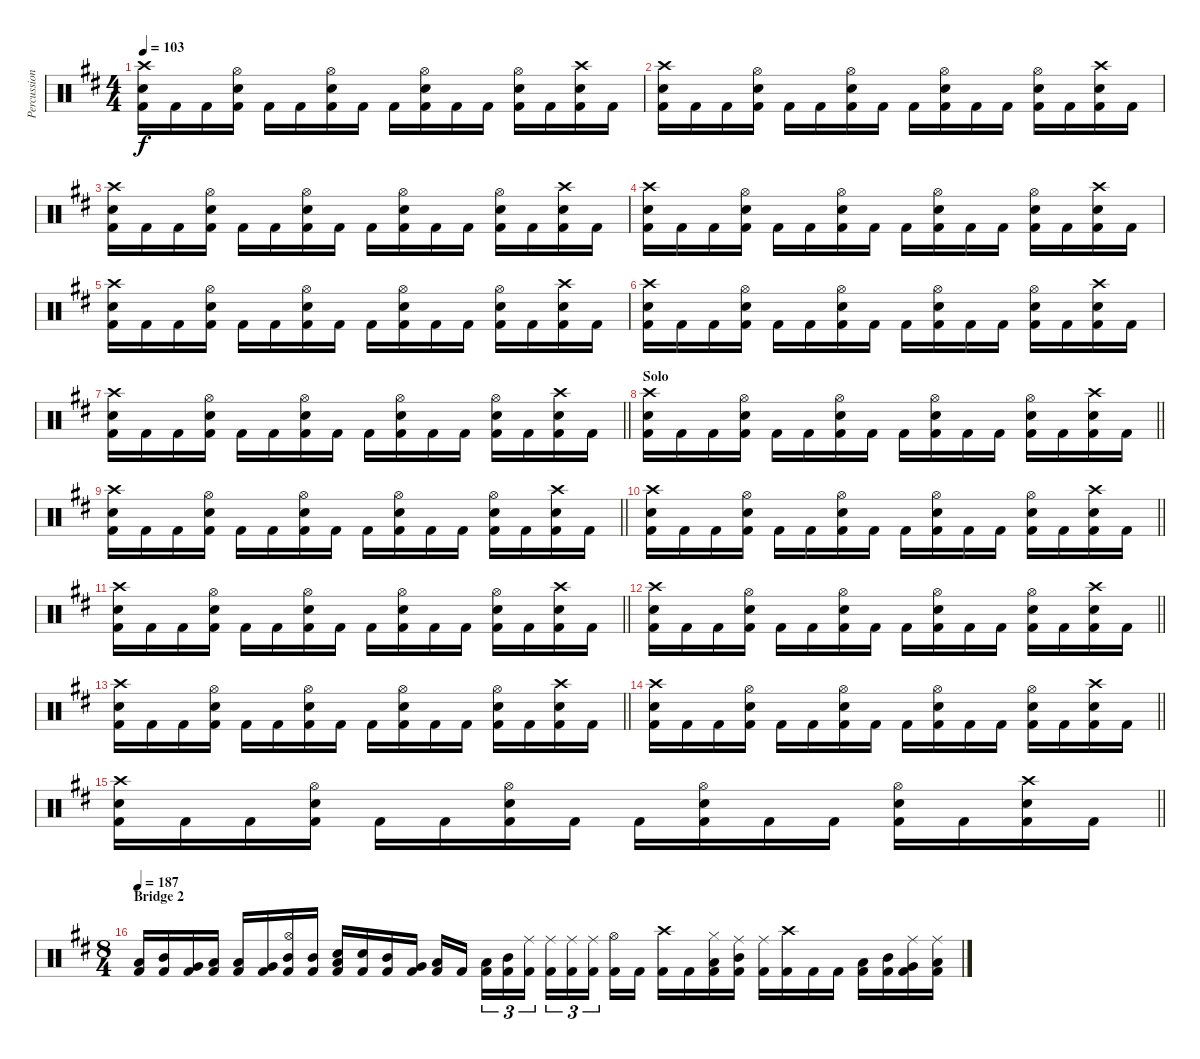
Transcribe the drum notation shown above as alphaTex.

\track ("Percussion" "Percussion") {instrument percussion}
\staff {score}
\articulation defaults
\ts (4 4)
\tempo 103
\clef neutral
\ks d
("Crash high (hit)" "Electric Snare (hit)" "Kick (hit) 2").16{dy f} "Kick (hit) 2".16 "Kick (hit) 2".16 ("Hi-Hat (open)" "Electric Snare (hit)" "Kick (hit) 2").16 "Kick (hit) 2".16 "Kick (hit) 2".16 ("Hi-Hat (open)" "Electric Snare (hit)" "Kick (hit) 2").16 "Kick (hit) 2".16 "Kick (hit) 2".16 ("Hi-Hat (open)" "Electric Snare (hit)" "Kick (hit) 2").16 "Kick (hit) 2".16 "Kick (hit) 2".16 ("Hi-Hat (open)" "Electric Snare (hit)" "Kick (hit) 2").16 "Kick (hit) 2".16 ("Crash high (hit)" "Electric Snare (hit)" "Kick (hit) 2").16 "Kick (hit) 2".16 |
("Crash high (hit)" "Electric Snare (hit)" "Kick (hit) 2").16 "Kick (hit) 2".16 "Kick (hit) 2".16 ("Hi-Hat (open)" "Electric Snare (hit)" "Kick (hit) 2").16 "Kick (hit) 2".16 "Kick (hit) 2".16 ("Hi-Hat (open)" "Electric Snare (hit)" "Kick (hit) 2").16 "Kick (hit) 2".16 "Kick (hit) 2".16 ("Hi-Hat (open)" "Electric Snare (hit)" "Kick (hit) 2").16 "Kick (hit) 2".16 "Kick (hit) 2".16 ("Hi-Hat (open)" "Electric Snare (hit)" "Kick (hit) 2").16 "Kick (hit) 2".16 ("Crash high (hit)" "Electric Snare (hit)" "Kick (hit) 2").16 "Kick (hit) 2".16 |
("Crash high (hit)" "Electric Snare (hit)" "Kick (hit) 2").16 "Kick (hit) 2".16 "Kick (hit) 2".16 ("Hi-Hat (open)" "Electric Snare (hit)" "Kick (hit) 2").16 "Kick (hit) 2".16 "Kick (hit) 2".16 ("Hi-Hat (open)" "Electric Snare (hit)" "Kick (hit) 2").16 "Kick (hit) 2".16 "Kick (hit) 2".16 ("Hi-Hat (open)" "Electric Snare (hit)" "Kick (hit) 2").16 "Kick (hit) 2".16 "Kick (hit) 2".16 ("Hi-Hat (open)" "Electric Snare (hit)" "Kick (hit) 2").16 "Kick (hit) 2".16 ("Crash high (hit)" "Electric Snare (hit)" "Kick (hit) 2").16 "Kick (hit) 2".16 |
("Crash high (hit)" "Electric Snare (hit)" "Kick (hit) 2").16 "Kick (hit) 2".16 "Kick (hit) 2".16 ("Hi-Hat (open)" "Electric Snare (hit)" "Kick (hit) 2").16 "Kick (hit) 2".16 "Kick (hit) 2".16 ("Hi-Hat (open)" "Electric Snare (hit)" "Kick (hit) 2").16 "Kick (hit) 2".16 "Kick (hit) 2".16 ("Hi-Hat (open)" "Electric Snare (hit)" "Kick (hit) 2").16 "Kick (hit) 2".16 "Kick (hit) 2".16 ("Hi-Hat (open)" "Electric Snare (hit)" "Kick (hit) 2").16 "Kick (hit) 2".16 ("Crash high (hit)" "Electric Snare (hit)" "Kick (hit) 2").16 "Kick (hit) 2".16 |
("Crash high (hit)" "Electric Snare (hit)" "Kick (hit) 2").16 "Kick (hit) 2".16 "Kick (hit) 2".16 ("Hi-Hat (open)" "Electric Snare (hit)" "Kick (hit) 2").16 "Kick (hit) 2".16 "Kick (hit) 2".16 ("Hi-Hat (open)" "Electric Snare (hit)" "Kick (hit) 2").16 "Kick (hit) 2".16 "Kick (hit) 2".16 ("Hi-Hat (open)" "Electric Snare (hit)" "Kick (hit) 2").16 "Kick (hit) 2".16 "Kick (hit) 2".16 ("Hi-Hat (open)" "Electric Snare (hit)" "Kick (hit) 2").16 "Kick (hit) 2".16 ("Crash high (hit)" "Electric Snare (hit)" "Kick (hit) 2").16 "Kick (hit) 2".16 |
("Crash high (hit)" "Electric Snare (hit)" "Kick (hit) 2").16 "Kick (hit) 2".16 "Kick (hit) 2".16 ("Hi-Hat (open)" "Electric Snare (hit)" "Kick (hit) 2").16 "Kick (hit) 2".16 "Kick (hit) 2".16 ("Hi-Hat (open)" "Electric Snare (hit)" "Kick (hit) 2").16 "Kick (hit) 2".16 "Kick (hit) 2".16 ("Hi-Hat (open)" "Electric Snare (hit)" "Kick (hit) 2").16 "Kick (hit) 2".16 "Kick (hit) 2".16 ("Hi-Hat (open)" "Electric Snare (hit)" "Kick (hit) 2").16 "Kick (hit) 2".16 ("Crash high (hit)" "Electric Snare (hit)" "Kick (hit) 2").16 "Kick (hit) 2".16 |
\barLineRight lightlight
("Crash high (hit)" "Electric Snare (hit)" "Kick (hit) 2").16 "Kick (hit) 2".16 "Kick (hit) 2".16 ("Hi-Hat (open)" "Electric Snare (hit)" "Kick (hit) 2").16 "Kick (hit) 2".16 "Kick (hit) 2".16 ("Hi-Hat (open)" "Electric Snare (hit)" "Kick (hit) 2").16 "Kick (hit) 2".16 "Kick (hit) 2".16 ("Hi-Hat (open)" "Electric Snare (hit)" "Kick (hit) 2").16 "Kick (hit) 2".16 "Kick (hit) 2".16 ("Hi-Hat (open)" "Electric Snare (hit)" "Kick (hit) 2").16 "Kick (hit) 2".16 ("Crash high (hit)" "Electric Snare (hit)" "Kick (hit) 2").16 "Kick (hit) 2".16 |
\section ("" "Solo")
\barLineRight lightlight
("Crash high (hit)" "Electric Snare (hit)" "Kick (hit) 2").16 "Kick (hit) 2".16 "Kick (hit) 2".16 ("Hi-Hat (open)" "Electric Snare (hit)" "Kick (hit) 2").16 "Kick (hit) 2".16 "Kick (hit) 2".16 ("Hi-Hat (open)" "Electric Snare (hit)" "Kick (hit) 2").16 "Kick (hit) 2".16 "Kick (hit) 2".16 ("Hi-Hat (open)" "Electric Snare (hit)" "Kick (hit) 2").16 "Kick (hit) 2".16 "Kick (hit) 2".16 ("Hi-Hat (open)" "Electric Snare (hit)" "Kick (hit) 2").16 "Kick (hit) 2".16 ("Crash high (hit)" "Electric Snare (hit)" "Kick (hit) 2").16 "Kick (hit) 2".16 |
\barLineRight lightlight
("Crash high (hit)" "Electric Snare (hit)" "Kick (hit) 2").16 "Kick (hit) 2".16 "Kick (hit) 2".16 ("Hi-Hat (open)" "Electric Snare (hit)" "Kick (hit) 2").16 "Kick (hit) 2".16 "Kick (hit) 2".16 ("Hi-Hat (open)" "Electric Snare (hit)" "Kick (hit) 2").16 "Kick (hit) 2".16 "Kick (hit) 2".16 ("Hi-Hat (open)" "Electric Snare (hit)" "Kick (hit) 2").16 "Kick (hit) 2".16 "Kick (hit) 2".16 ("Hi-Hat (open)" "Electric Snare (hit)" "Kick (hit) 2").16 "Kick (hit) 2".16 ("Crash high (hit)" "Electric Snare (hit)" "Kick (hit) 2").16 "Kick (hit) 2".16 |
\barLineRight lightlight
("Crash high (hit)" "Electric Snare (hit)" "Kick (hit) 2").16 "Kick (hit) 2".16 "Kick (hit) 2".16 ("Hi-Hat (open)" "Electric Snare (hit)" "Kick (hit) 2").16 "Kick (hit) 2".16 "Kick (hit) 2".16 ("Hi-Hat (open)" "Electric Snare (hit)" "Kick (hit) 2").16 "Kick (hit) 2".16 "Kick (hit) 2".16 ("Hi-Hat (open)" "Electric Snare (hit)" "Kick (hit) 2").16 "Kick (hit) 2".16 "Kick (hit) 2".16 ("Hi-Hat (open)" "Electric Snare (hit)" "Kick (hit) 2").16 "Kick (hit) 2".16 ("Crash high (hit)" "Electric Snare (hit)" "Kick (hit) 2").16 "Kick (hit) 2".16 |
\barLineRight lightlight
("Crash high (hit)" "Electric Snare (hit)" "Kick (hit) 2").16 "Kick (hit) 2".16 "Kick (hit) 2".16 ("Hi-Hat (open)" "Electric Snare (hit)" "Kick (hit) 2").16 "Kick (hit) 2".16 "Kick (hit) 2".16 ("Hi-Hat (open)" "Electric Snare (hit)" "Kick (hit) 2").16 "Kick (hit) 2".16 "Kick (hit) 2".16 ("Hi-Hat (open)" "Electric Snare (hit)" "Kick (hit) 2").16 "Kick (hit) 2".16 "Kick (hit) 2".16 ("Hi-Hat (open)" "Electric Snare (hit)" "Kick (hit) 2").16 "Kick (hit) 2".16 ("Crash high (hit)" "Electric Snare (hit)" "Kick (hit) 2").16 "Kick (hit) 2".16 |
\barLineRight lightlight
("Crash high (hit)" "Electric Snare (hit)" "Kick (hit) 2").16 "Kick (hit) 2".16 "Kick (hit) 2".16 ("Hi-Hat (open)" "Electric Snare (hit)" "Kick (hit) 2").16 "Kick (hit) 2".16 "Kick (hit) 2".16 ("Hi-Hat (open)" "Electric Snare (hit)" "Kick (hit) 2").16 "Kick (hit) 2".16 "Kick (hit) 2".16 ("Hi-Hat (open)" "Electric Snare (hit)" "Kick (hit) 2").16 "Kick (hit) 2".16 "Kick (hit) 2".16 ("Hi-Hat (open)" "Electric Snare (hit)" "Kick (hit) 2").16 "Kick (hit) 2".16 ("Crash high (hit)" "Electric Snare (hit)" "Kick (hit) 2").16 "Kick (hit) 2".16 |
\barLineRight lightlight
("Crash high (hit)" "Electric Snare (hit)" "Kick (hit) 2").16 "Kick (hit) 2".16 "Kick (hit) 2".16 ("Hi-Hat (open)" "Electric Snare (hit)" "Kick (hit) 2").16 "Kick (hit) 2".16 "Kick (hit) 2".16 ("Hi-Hat (open)" "Electric Snare (hit)" "Kick (hit) 2").16 "Kick (hit) 2".16 "Kick (hit) 2".16 ("Hi-Hat (open)" "Electric Snare (hit)" "Kick (hit) 2").16 "Kick (hit) 2".16 "Kick (hit) 2".16 ("Hi-Hat (open)" "Electric Snare (hit)" "Kick (hit) 2").16 "Kick (hit) 2".16 ("Crash high (hit)" "Electric Snare (hit)" "Kick (hit) 2").16 "Kick (hit) 2".16 |
\barLineRight lightlight
("Crash high (hit)" "Electric Snare (hit)" "Kick (hit) 2").16 "Kick (hit) 2".16 "Kick (hit) 2".16 ("Hi-Hat (open)" "Electric Snare (hit)" "Kick (hit) 2").16 "Kick (hit) 2".16 "Kick (hit) 2".16 ("Hi-Hat (open)" "Electric Snare (hit)" "Kick (hit) 2").16 "Kick (hit) 2".16 "Kick (hit) 2".16 ("Hi-Hat (open)" "Electric Snare (hit)" "Kick (hit) 2").16 "Kick (hit) 2".16 "Kick (hit) 2".16 ("Hi-Hat (open)" "Electric Snare (hit)" "Kick (hit) 2").16 "Kick (hit) 2".16 ("Crash high (hit)" "Electric Snare (hit)" "Kick (hit) 2").16 "Kick (hit) 2".16 |
\barLineRight lightlight
("Crash high (hit)" "Electric Snare (hit)" "Kick (hit) 2").16 "Kick (hit) 2".16 "Kick (hit) 2".16 ("Hi-Hat (open)" "Electric Snare (hit)" "Kick (hit) 2").16 "Kick (hit) 2".16 "Kick (hit) 2".16 ("Hi-Hat (open)" "Electric Snare (hit)" "Kick (hit) 2").16 "Kick (hit) 2".16 "Kick (hit) 2".16 ("Hi-Hat (open)" "Electric Snare (hit)" "Kick (hit) 2").16 "Kick (hit) 2".16 "Kick (hit) 2".16 ("Hi-Hat (open)" "Electric Snare (hit)" "Kick (hit) 2").16 "Kick (hit) 2".16 ("Crash high (hit)" "Electric Snare (hit)" "Kick (hit) 2").16 "Kick (hit) 2".16 |
\ts (8 4)
\section ("" "Bridge 2")
\tempo 187
("Low Tom (hit)" "Kick (hit) 2").16 ("Mid Tom (hit)" "Kick (hit) 2").16 ("Very Low Tom (hit)" "Kick (hit) 2").16 ("Low Floor Tom (hit)" "Kick (hit) 2").16 ("Low Tom (hit)" "Kick (hit) 2").16 ("Very Low Tom (hit)" "Kick (hit) 2").16 ("Hi-Hat (open)" "Mid Tom (hit)" "Kick (hit) 2").16 ("Mid Tom (hit)" "Kick (hit) 2").16 ("Snare (hit) 2" "Low Tom (hit)" "Kick (hit) 2").16 ("Snare (hit) 2" "Kick (hit) 2").16 ("Mid Tom (hit)" "Kick (hit) 2").16 ("Very Low Tom (hit)" "Kick (hit) 2").16 ("Low Floor Tom (hit)" "Kick (hit) 2").16 "Kick (hit) 2".16{beam splitsecondary} ("Low Tom (hit)" "Kick (hit) 2").16{tu (3 2)} ("Mid Tom (hit)" "Kick (hit) 2").16{tu (3 2)} ("Ride (middle)" "Kick (hit) 2").16{tu (3 2)} ("Ride (middle)" "Kick (hit) 2").16{tu (3 2)} ("Ride (middle)" "Kick (hit) 2").16{tu (3 2)} ("Ride (middle)" "Kick (hit) 2").16{tu (3 2) beam splitsecondary} ("Hi-Hat (open)" "Kick (hit) 2").16 "Kick (hit) 2".16 ("Crash high (hit)" "Kick (hit) 2").16 "Kick (hit) 2".16 ("Hi-Hat (closed)" "Low Tom (hit)" "Kick (hit) 2").16 ("Ride (middle)" "Mid Tom (hit)" "Kick (hit) 2").16 ("Ride (middle)" "Kick (hit) 2").16 ("Crash high (hit)" "Kick (hit) 2").16 "Kick (hit) 2".16 "Kick (hit) 2".16 ("Low Tom (hit)" "Kick (hit) 2").16 ("Mid Tom (hit)" "Kick (hit) 2").16 ("Ride (middle)" "Very Low Tom (hit)" "Kick (hit) 2").16 ("Ride (middle)" "Low Floor Tom (hit)" "Kick (hit) 2").16
